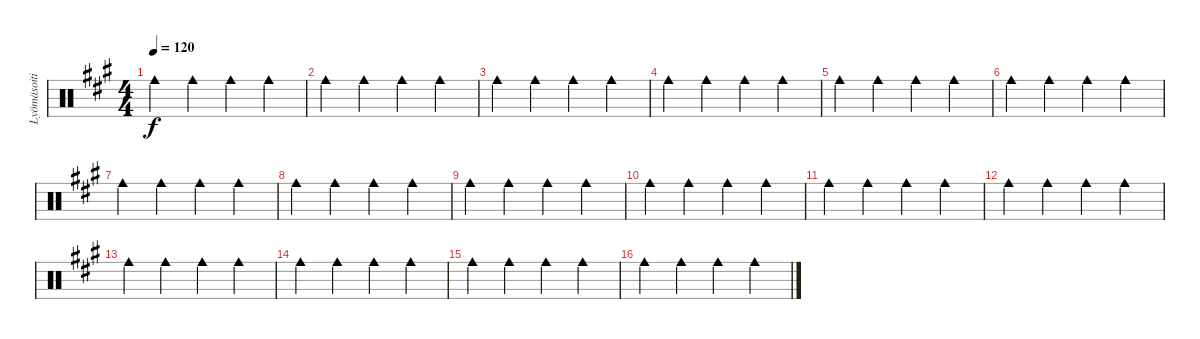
\track ("Lyömäsoitin" "Lyömäsoiti") {instrument percussion}
\staff {score}
\articulation defaults
\ts (4 4)
\tempo 120
\clef neutral
\ks f#minor "Cowbell medium (hit)".4{dy f} "Cowbell medium (hit)".4 "Cowbell medium (hit)".4 "Cowbell medium (hit)".4
|
"Cowbell medium (hit)".4 "Cowbell medium (hit)".4 "Cowbell medium (hit)".4 "Cowbell medium (hit)".4 |
"Cowbell medium (hit)".4 "Cowbell medium (hit)".4 "Cowbell medium (hit)".4 "Cowbell medium (hit)".4 |
"Cowbell medium (hit)".4 "Cowbell medium (hit)".4 "Cowbell medium (hit)".4 "Cowbell medium (hit)".4 |
"Cowbell medium (hit)".4 "Cowbell medium (hit)".4 "Cowbell medium (hit)".4 "Cowbell medium (hit)".4 |
"Cowbell medium (hit)".4 "Cowbell medium (hit)".4 "Cowbell medium (hit)".4 "Cowbell medium (hit)".4 |
"Cowbell medium (hit)".4 "Cowbell medium (hit)".4 "Cowbell medium (hit)".4 "Cowbell medium (hit)".4 |
"Cowbell medium (hit)".4 "Cowbell medium (hit)".4 "Cowbell medium (hit)".4 "Cowbell medium (hit)".4 |
"Cowbell medium (hit)".4 "Cowbell medium (hit)".4 "Cowbell medium (hit)".4 "Cowbell medium (hit)".4 |
"Cowbell medium (hit)".4 "Cowbell medium (hit)".4 "Cowbell medium (hit)".4 "Cowbell medium (hit)".4 |
"Cowbell medium (hit)".4 "Cowbell medium (hit)".4 "Cowbell medium (hit)".4 "Cowbell medium (hit)".4 |
"Cowbell medium (hit)".4 "Cowbell medium (hit)".4 "Cowbell medium (hit)".4 "Cowbell medium (hit)".4 |
"Cowbell medium (hit)".4 "Cowbell medium (hit)".4 "Cowbell medium (hit)".4 "Cowbell medium (hit)".4 |
"Cowbell medium (hit)".4 "Cowbell medium (hit)".4 "Cowbell medium (hit)".4 "Cowbell medium (hit)".4 |
"Cowbell medium (hit)".4 "Cowbell medium (hit)".4 "Cowbell medium (hit)".4 "Cowbell medium (hit)".4 |
"Cowbell medium (hit)".4 "Cowbell medium (hit)".4 "Cowbell medium (hit)".4 "Cowbell medium (hit)".4
